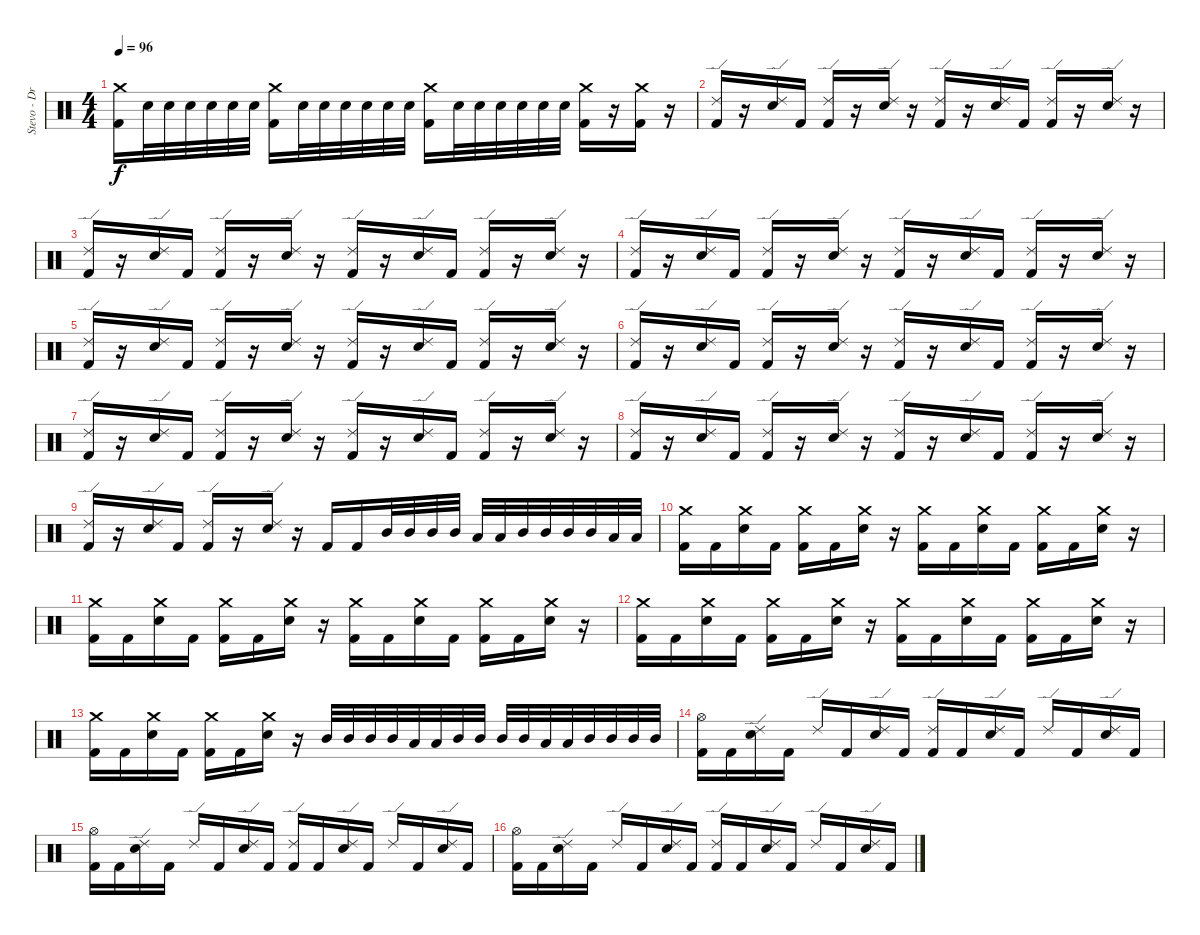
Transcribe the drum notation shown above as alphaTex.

\track ("Stevo - Drums" "Stevo - Dr") {instrument percussion}
\staff {score}
\articulation defaults
\ts (4 4)
\tempo 96
\clef neutral
\ks c
("Crash medium (hit)" "Kick (hit) 2").16{dy f} "Electric Snare (hit)".32 "Electric Snare (hit)".32 "Electric Snare (hit)".32 "Electric Snare (hit)".32 "Electric Snare (hit)".32 "Electric Snare (hit)".32 ("Crash medium (hit)" "Kick (hit) 2").16 "Electric Snare (hit)".32 "Electric Snare (hit)".32 "Electric Snare (hit)".32 "Electric Snare (hit)".32 "Electric Snare (hit)".32 "Electric Snare (hit)".32 ("Crash medium (hit)" "Kick (hit) 2").16 "Electric Snare (hit)".32 "Electric Snare (hit)".32 "Electric Snare (hit)".32 "Electric Snare (hit)".32 "Electric Snare (hit)".32 "Electric Snare (hit)".32 ("Crash medium (hit)" "Kick (hit) 2").16 r.16 ("Crash medium (hit)" "Kick (hit) 2").16 r.16 |
("Ride (edge) 2" "Kick (hit) 2").16 r.16 ("Ride (edge) 2" "Electric Snare (hit)").16 "Kick (hit) 2".16 ("Ride (edge) 2" "Kick (hit) 2").16 r.16 ("Ride (edge) 2" "Electric Snare (hit)").16 r.16 ("Ride (edge) 2" "Kick (hit) 2").16 r.16 ("Ride (edge) 2" "Electric Snare (hit)").16 "Kick (hit) 2".16 ("Ride (edge) 2" "Kick (hit) 2").16 r.16 ("Ride (edge) 2" "Electric Snare (hit)").16 r.16 |
("Ride (edge) 2" "Kick (hit) 2").16 r.16 ("Ride (edge) 2" "Electric Snare (hit)").16 "Kick (hit) 2".16 ("Ride (edge) 2" "Kick (hit) 2").16 r.16 ("Ride (edge) 2" "Electric Snare (hit)").16 r.16 ("Ride (edge) 2" "Kick (hit) 2").16 r.16 ("Ride (edge) 2" "Electric Snare (hit)").16 "Kick (hit) 2".16 ("Ride (edge) 2" "Kick (hit) 2").16 r.16 ("Ride (edge) 2" "Electric Snare (hit)").16 r.16 |
("Ride (edge) 2" "Kick (hit) 2").16 r.16 ("Ride (edge) 2" "Electric Snare (hit)").16 "Kick (hit) 2".16 ("Ride (edge) 2" "Kick (hit) 2").16 r.16 ("Ride (edge) 2" "Electric Snare (hit)").16 r.16 ("Ride (edge) 2" "Kick (hit) 2").16 r.16 ("Ride (edge) 2" "Electric Snare (hit)").16 "Kick (hit) 2".16 ("Ride (edge) 2" "Kick (hit) 2").16 r.16 ("Ride (edge) 2" "Electric Snare (hit)").16 r.16 |
("Ride (edge) 2" "Kick (hit) 2").16 r.16 ("Ride (edge) 2" "Electric Snare (hit)").16 "Kick (hit) 2".16 ("Ride (edge) 2" "Kick (hit) 2").16 r.16 ("Ride (edge) 2" "Electric Snare (hit)").16 r.16 ("Ride (edge) 2" "Kick (hit) 2").16 r.16 ("Ride (edge) 2" "Electric Snare (hit)").16 "Kick (hit) 2".16 ("Ride (edge) 2" "Kick (hit) 2").16 r.16 ("Ride (edge) 2" "Electric Snare (hit)").16 r.16 |
("Ride (edge) 2" "Kick (hit) 2").16 r.16 ("Ride (edge) 2" "Electric Snare (hit)").16 "Kick (hit) 2".16 ("Ride (edge) 2" "Kick (hit) 2").16 r.16 ("Ride (edge) 2" "Electric Snare (hit)").16 r.16 ("Ride (edge) 2" "Kick (hit) 2").16 r.16 ("Ride (edge) 2" "Electric Snare (hit)").16 "Kick (hit) 2".16 ("Ride (edge) 2" "Kick (hit) 2").16 r.16 ("Ride (edge) 2" "Electric Snare (hit)").16 r.16 |
("Ride (edge) 2" "Kick (hit) 2").16 r.16 ("Ride (edge) 2" "Electric Snare (hit)").16 "Kick (hit) 2".16 ("Ride (edge) 2" "Kick (hit) 2").16 r.16 ("Ride (edge) 2" "Electric Snare (hit)").16 r.16 ("Ride (edge) 2" "Kick (hit) 2").16 r.16 ("Ride (edge) 2" "Electric Snare (hit)").16 "Kick (hit) 2".16 ("Ride (edge) 2" "Kick (hit) 2").16 r.16 ("Ride (edge) 2" "Electric Snare (hit)").16 r.16 |
("Ride (edge) 2" "Kick (hit) 2").16 r.16 ("Ride (edge) 2" "Electric Snare (hit)").16 "Kick (hit) 2".16 ("Ride (edge) 2" "Kick (hit) 2").16 r.16 ("Ride (edge) 2" "Electric Snare (hit)").16 r.16 ("Ride (edge) 2" "Kick (hit) 2").16 r.16 ("Ride (edge) 2" "Electric Snare (hit)").16 "Kick (hit) 2".16 ("Ride (edge) 2" "Kick (hit) 2").16 r.16 ("Ride (edge) 2" "Electric Snare (hit)").16 r.16 |
("Ride (edge) 2" "Kick (hit) 2").16 r.16 ("Ride (edge) 2" "Electric Snare (hit)").16 "Kick (hit) 2".16 ("Ride (edge) 2" "Kick (hit) 2").16 r.16 ("Ride (edge) 2" "Electric Snare (hit)").16 r.16 "Kick (hit) 2".16 "Kick (hit) 2".16 "Mid Tom (hit)".32 "Mid Tom (hit)".32 "Mid Tom (hit)".32 "Mid Tom (hit)".32 "Low Tom (hit)".32 "Low Tom (hit)".32 "Mid Tom (hit)".32 "Mid Tom (hit)".32 "Mid Tom (hit)".32 "Mid Tom (hit)".32 "Low Tom (hit)".32 "Low Tom (hit)".32 |
("Crash medium (hit)" "Kick (hit) 2").16 "Kick (hit) 2".16 ("Crash medium (hit)" "Electric Snare (hit)").16 "Kick (hit) 2".16 ("Crash medium (hit)" "Kick (hit) 2").16 "Kick (hit) 2".16 ("Crash medium (hit)" "Electric Snare (hit)").16 r.16 ("Crash medium (hit)" "Kick (hit) 2").16 "Kick (hit) 2".16 ("Crash medium (hit)" "Electric Snare (hit)").16 "Kick (hit) 2".16 ("Crash medium (hit)" "Kick (hit) 2").16 "Kick (hit) 2".16 ("Crash medium (hit)" "Electric Snare (hit)").16 r.16 |
("Crash medium (hit)" "Kick (hit) 2").16 "Kick (hit) 2".16 ("Crash medium (hit)" "Electric Snare (hit)").16 "Kick (hit) 2".16 ("Crash medium (hit)" "Kick (hit) 2").16 "Kick (hit) 2".16 ("Crash medium (hit)" "Electric Snare (hit)").16 r.16 ("Crash medium (hit)" "Kick (hit) 2").16 "Kick (hit) 2".16 ("Crash medium (hit)" "Electric Snare (hit)").16 "Kick (hit) 2".16 ("Crash medium (hit)" "Kick (hit) 2").16 "Kick (hit) 2".16 ("Crash medium (hit)" "Electric Snare (hit)").16 r.16 |
("Crash medium (hit)" "Kick (hit) 2").16 "Kick (hit) 2".16 ("Crash medium (hit)" "Electric Snare (hit)").16 "Kick (hit) 2".16 ("Crash medium (hit)" "Kick (hit) 2").16 "Kick (hit) 2".16 ("Crash medium (hit)" "Electric Snare (hit)").16 r.16 ("Crash medium (hit)" "Kick (hit) 2").16 "Kick (hit) 2".16 ("Crash medium (hit)" "Electric Snare (hit)").16 "Kick (hit) 2".16 ("Crash medium (hit)" "Kick (hit) 2").16 "Kick (hit) 2".16 ("Crash medium (hit)" "Electric Snare (hit)").16 r.16 |
("Crash medium (hit)" "Kick (hit) 2").16 "Kick (hit) 2".16 ("Crash medium (hit)" "Electric Snare (hit)").16 "Kick (hit) 2".16 ("Crash medium (hit)" "Kick (hit) 2").16 "Kick (hit) 2".16 ("Crash medium (hit)" "Electric Snare (hit)").16 r.16 "Mid Tom (hit)".32 "Mid Tom (hit)".32 "Mid Tom (hit)".32 "Mid Tom (hit)".32 "Low Tom (hit)".32 "Low Tom (hit)".32 "Mid Tom (hit)".32 "Mid Tom (hit)".32 "Mid Tom (hit)".32 "Mid Tom (hit)".32 "Low Tom (hit)".32 "Low Tom (hit)".32 "Mid Tom (hit)".32 "Mid Tom (hit)".32 "Mid Tom (hit)".32 "Mid Tom (hit)".32 |
("Hi-Hat (open)" "Kick (hit) 2").16 "Kick (hit) 2".16 ("Ride (edge) 2" "Electric Snare (hit)").16 "Kick (hit) 2".16 "Ride (edge) 2".16 "Kick (hit) 2".16 ("Ride (edge) 2" "Electric Snare (hit)").16 "Kick (hit) 2".16 ("Ride (edge) 2" "Kick (hit) 2").16 "Kick (hit) 2".16 ("Ride (edge) 2" "Electric Snare (hit)").16 "Kick (hit) 2".16 "Ride (edge) 2".16 "Kick (hit) 2".16 ("Ride (edge) 2" "Electric Snare (hit)").16 "Kick (hit) 2".16 |
("Hi-Hat (open)" "Kick (hit) 2").16 "Kick (hit) 2".16 ("Ride (edge) 2" "Electric Snare (hit)").16 "Kick (hit) 2".16 "Ride (edge) 2".16 "Kick (hit) 2".16 ("Ride (edge) 2" "Electric Snare (hit)").16 "Kick (hit) 2".16 ("Ride (edge) 2" "Kick (hit) 2").16 "Kick (hit) 2".16 ("Ride (edge) 2" "Electric Snare (hit)").16 "Kick (hit) 2".16 "Ride (edge) 2".16 "Kick (hit) 2".16 ("Ride (edge) 2" "Electric Snare (hit)").16 "Kick (hit) 2".16 |
("Hi-Hat (open)" "Kick (hit) 2").16 "Kick (hit) 2".16 ("Ride (edge) 2" "Electric Snare (hit)").16 "Kick (hit) 2".16 "Ride (edge) 2".16 "Kick (hit) 2".16 ("Ride (edge) 2" "Electric Snare (hit)").16 "Kick (hit) 2".16 ("Ride (edge) 2" "Kick (hit) 2").16 "Kick (hit) 2".16 ("Ride (edge) 2" "Electric Snare (hit)").16 "Kick (hit) 2".16 "Ride (edge) 2".16 "Kick (hit) 2".16 ("Ride (edge) 2" "Electric Snare (hit)").16 "Kick (hit) 2".16
